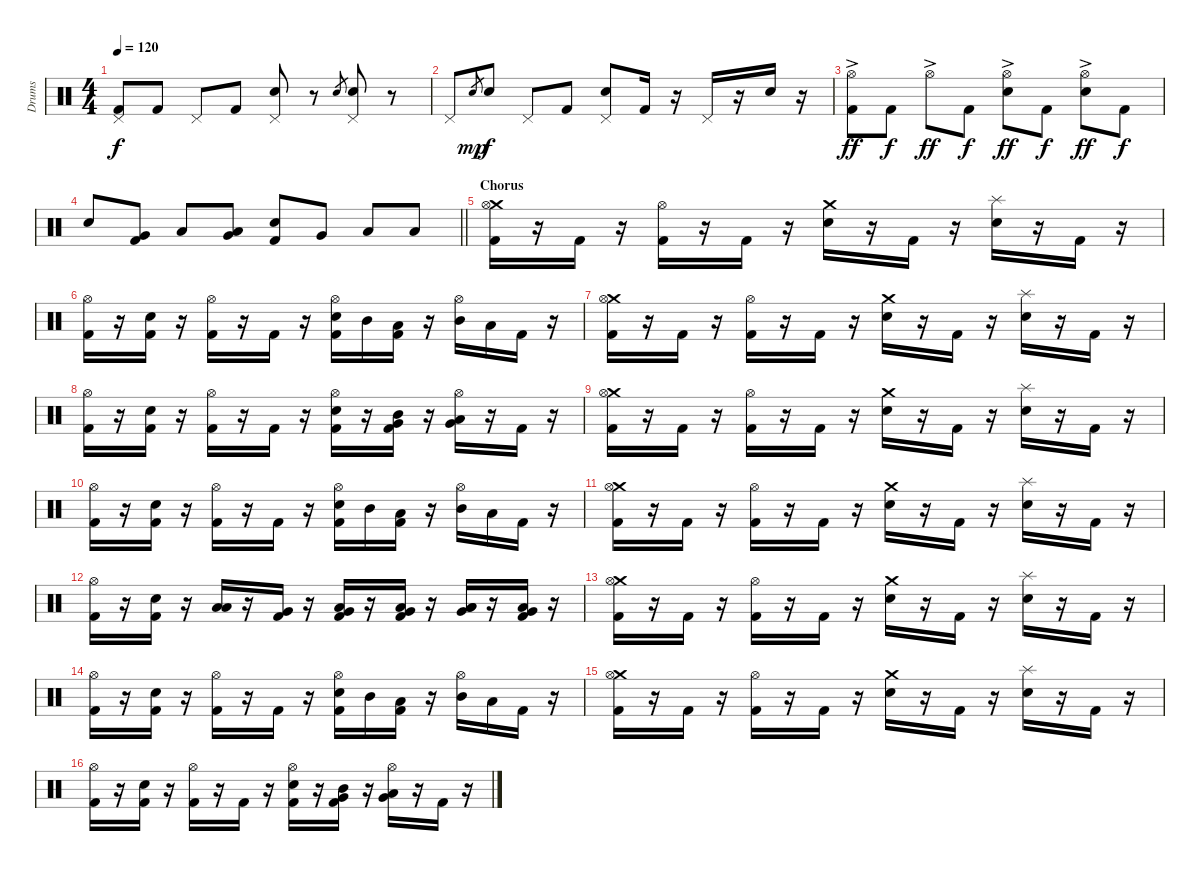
\track ("Drums" "Drums") {instrument percussion}
\staff {score}
\articulation defaults
\ts (4 4)
\tempo 120
\clef neutral
\ks c
("Kick (hit) 2" "Pedal Hi-Hat (hit)").8{dy f} "Kick (hit) 2".8 "Pedal Hi-Hat (hit)".8 "Kick (hit) 2".8 ("Snare (hit) 2" "Pedal Hi-Hat (hit)").8 r.8 "Snare (hit) 2".8{gr} ("Snare (hit) 2" "Pedal Hi-Hat (hit)").8 r.8 |
"Pedal Hi-Hat (hit)".8 "Electric Snare (hit)".8{gr dy mp} "Snare (hit) 2".8{dy f} "Pedal Hi-Hat (hit)".8 "Kick (hit) 2".8 ("Snare (hit) 2" "Pedal Hi-Hat (hit)").8 "Kick (hit) 2".16 r.16 "Pedal Hi-Hat (hit)".16 r.16 "Snare (hit) 2".16 r.16 |
("Kick (hit) 2" "Hi-Hat (open)"{ac}).8{dy ff} "Kick (hit) 2".8{dy f} "Hi-Hat (open)"{ac}.8{dy ff} "Kick (hit) 2".8{dy f} ("Snare (hit) 2" "Hi-Hat (open)"{ac}).8{dy ff} "Kick (hit) 2".8{dy f} ("Snare (hit) 2" "Hi-Hat (open)"{ac}).8{dy ff} "Kick (hit) 2".8{dy f} |
\barLineRight lightlight "Snare (hit) 2".8
("Very Low Tom (hit)" "Kick (hit) 2").8 "Low Tom (hit)".8 ("Very Low Tom (hit)" "Low Tom (hit)").8 ("Snare (hit) 2" "Kick (hit) 2").8 "Very Low Tom (hit)".8 "Low Floor Tom (hit)".8 "Low Floor Tom (hit)".8 |
\section ("" "Chorus")
("Crash medium (hit)" "Hi-Hat (open)" "Kick (hit) 2").16 r.16 "Kick (hit) 2".16 r.16 ("Hi-Hat (open)" "Kick (hit) 2").16 r.16 "Kick (hit) 2".16 r.16 ("Snare (hit) 2" "Crash medium (hit)").16 r.16 "Kick (hit) 2".16 r.16 ("Snare (hit) 2" "Splash (hit)").16 r.16 "Kick (hit) 2".16 r.16 |
("Hi-Hat (open)" "Kick (hit) 2").16 r.16 ("Snare (hit) 2" "Kick (hit) 2").16 r.16 ("Hi-Hat (open)" "Kick (hit) 2").16 r.16 "Kick (hit) 2".16 r.16 ("Hi-Hat (open)" "Snare (hit) 2" "Kick (hit) 2").16 "Mid Tom (hit)".16 ("Low Tom (hit)" "Kick (hit) 2").16 r.16 ("Hi-Hat (open)" "Mid Tom (hit)").16 "Low Tom (hit)".16 "Kick (hit) 2".16 r.16 |
("Crash medium (hit)" "Hi-Hat (open)" "Kick (hit) 2").16 r.16 "Kick (hit) 2".16 r.16 ("Hi-Hat (open)" "Kick (hit) 2").16 r.16 "Kick (hit) 2".16 r.16 ("Snare (hit) 2" "Crash medium (hit)").16 r.16 "Kick (hit) 2".16 r.16 ("Snare (hit) 2" "Splash (hit)").16 r.16 "Kick (hit) 2".16 r.16 |
("Hi-Hat (open)" "Kick (hit) 2").16 r.16 ("Snare (hit) 2" "Kick (hit) 2").16 r.16 ("Hi-Hat (open)" "Kick (hit) 2").16 r.16 "Kick (hit) 2".16 r.16 ("Hi-Hat (open)" "Snare (hit) 2" "Kick (hit) 2").16 r.16 ("Mid Tom (hit)" "Very Low Tom (hit)" "Kick (hit) 2").16 r.16 ("Hi-Hat (open)" "Very Low Tom (hit)" "Low Tom (hit)").16 r.16 "Kick (hit) 2".16 r.16 |
("Crash medium (hit)" "Hi-Hat (open)" "Kick (hit) 2").16 r.16 "Kick (hit) 2".16 r.16 ("Hi-Hat (open)" "Kick (hit) 2").16 r.16 "Kick (hit) 2".16 r.16 ("Snare (hit) 2" "Crash medium (hit)").16 r.16 "Kick (hit) 2".16 r.16 ("Snare (hit) 2" "Splash (hit)").16 r.16 "Kick (hit) 2".16 r.16 |
("Hi-Hat (open)" "Kick (hit) 2").16 r.16 ("Snare (hit) 2" "Kick (hit) 2").16 r.16 ("Hi-Hat (open)" "Kick (hit) 2").16 r.16 "Kick (hit) 2".16 r.16 ("Hi-Hat (open)" "Snare (hit) 2" "Kick (hit) 2").16 "Mid Tom (hit)".16 ("Low Tom (hit)" "Kick (hit) 2").16 r.16 ("Hi-Hat (open)" "Mid Tom (hit)").16 "Low Tom (hit)".16 "Kick (hit) 2".16 r.16 |
("Crash medium (hit)" "Hi-Hat (open)" "Kick (hit) 2").16 r.16 "Kick (hit) 2".16 r.16 ("Hi-Hat (open)" "Kick (hit) 2").16 r.16 "Kick (hit) 2".16 r.16 ("Snare (hit) 2" "Crash medium (hit)").16 r.16 "Kick (hit) 2".16 r.16 ("Snare (hit) 2" "Splash (hit)").16 r.16 "Kick (hit) 2".16 r.16 |
("Hi-Hat (open)" "Kick (hit) 2").16 r.16 ("Snare (hit) 2" "Kick (hit) 2").16 r.16 ("Low Floor Tom (hit)" "Low Tom (hit)").16 r.16 ("Very Low Tom (hit)" "Kick (hit) 2").16 r.16 ("Low Floor Tom (hit)" "Very Low Tom (hit)" "Kick (hit) 2").16 r.16 ("Low Floor Tom (hit)" "Very Low Tom (hit)" "Kick (hit) 2").16 r.16 ("Low Floor Tom (hit)" "Very Low Tom (hit)" "Low Tom (hit)").16 r.16 ("Low Floor Tom (hit)" "Very Low Tom (hit)" "Kick (hit) 2").16 r.16 |
("Crash medium (hit)" "Hi-Hat (open)" "Kick (hit) 2").16 r.16 "Kick (hit) 2".16 r.16 ("Hi-Hat (open)" "Kick (hit) 2").16 r.16 "Kick (hit) 2".16 r.16 ("Snare (hit) 2" "Crash medium (hit)").16 r.16 "Kick (hit) 2".16 r.16 ("Snare (hit) 2" "Splash (hit)").16 r.16 "Kick (hit) 2".16 r.16 |
("Hi-Hat (open)" "Kick (hit) 2").16 r.16 ("Snare (hit) 2" "Kick (hit) 2").16 r.16 ("Hi-Hat (open)" "Kick (hit) 2").16 r.16 "Kick (hit) 2".16 r.16 ("Hi-Hat (open)" "Snare (hit) 2" "Kick (hit) 2").16 "Mid Tom (hit)".16 ("Low Tom (hit)" "Kick (hit) 2").16 r.16 ("Hi-Hat (open)" "Mid Tom (hit)").16 "Low Tom (hit)".16 "Kick (hit) 2".16 r.16 |
("Crash medium (hit)" "Hi-Hat (open)" "Kick (hit) 2").16 r.16 "Kick (hit) 2".16 r.16 ("Hi-Hat (open)" "Kick (hit) 2").16 r.16 "Kick (hit) 2".16 r.16 ("Snare (hit) 2" "Crash medium (hit)").16 r.16 "Kick (hit) 2".16 r.16 ("Snare (hit) 2" "Splash (hit)").16 r.16 "Kick (hit) 2".16 r.16 |
("Hi-Hat (open)" "Kick (hit) 2").16 r.16 ("Snare (hit) 2" "Kick (hit) 2").16 r.16 ("Hi-Hat (open)" "Kick (hit) 2").16 r.16 "Kick (hit) 2".16 r.16 ("Hi-Hat (open)" "Snare (hit) 2" "Kick (hit) 2").16 r.16 ("Mid Tom (hit)" "Very Low Tom (hit)" "Kick (hit) 2").16 r.16 ("Hi-Hat (open)" "Very Low Tom (hit)" "Low Tom (hit)").16 r.16 "Kick (hit) 2".16 r.16
